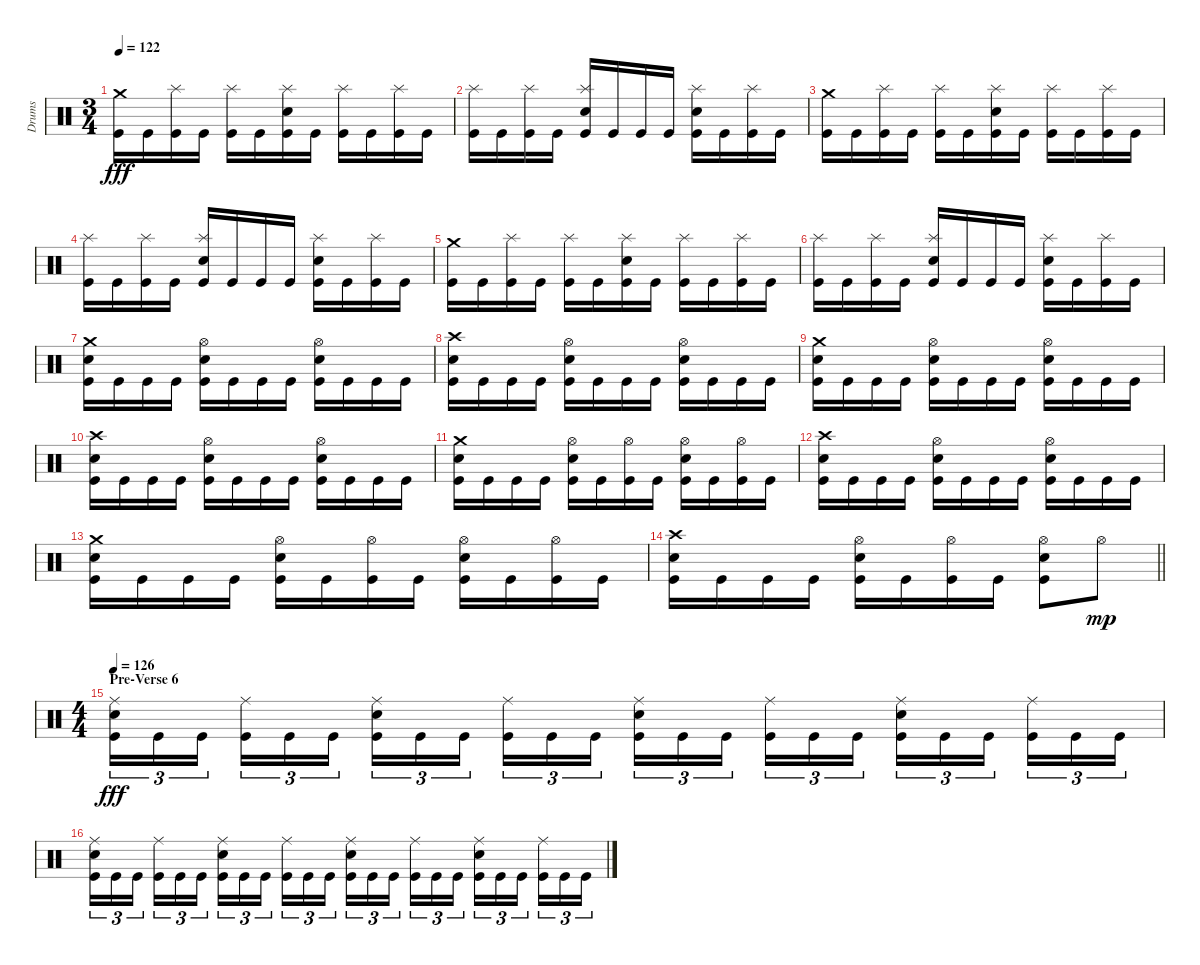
\track ("Drums" "Drums") {instrument percussion}
\staff {score}
\articulation defaults
\ts (3 4)
\tempo 122
\clef neutral
\ks c
("Crash medium (hit)" "Kick (hit)").16{dy fff} "Kick (hit)".16 ("Splash (hit)" "Kick (hit)").16 "Kick (hit)".16 ("Splash (hit)" "Kick (hit)").16 "Kick (hit)".16 ("Splash (hit)" "Electric Snare (hit)" "Kick (hit)").16 "Kick (hit)".16 ("Splash (hit)" "Kick (hit)").16 "Kick (hit)".16 ("Splash (hit)" "Kick (hit)").16 "Kick (hit)".16 |
("Splash (hit)" "Kick (hit)").16 "Kick (hit)".16 ("Splash (hit)" "Kick (hit)").16 "Kick (hit)".16 ("Splash (hit)" "Electric Snare (hit)" "Kick (hit)").16 "Kick (hit)".16 "Kick (hit)".16 "Kick (hit)".16 ("Splash (hit)" "Electric Snare (hit)" "Kick (hit)").16 "Kick (hit)".16 ("Splash (hit)" "Kick (hit)").16 "Kick (hit)".16 |
("Crash medium (hit)" "Kick (hit)").16 "Kick (hit)".16 ("Splash (hit)" "Kick (hit)").16 "Kick (hit)".16 ("Splash (hit)" "Kick (hit)").16 "Kick (hit)".16 ("Splash (hit)" "Electric Snare (hit)" "Kick (hit)").16 "Kick (hit)".16 ("Splash (hit)" "Kick (hit)").16 "Kick (hit)".16 ("Splash (hit)" "Kick (hit)").16 "Kick (hit)".16 |
("Splash (hit)" "Kick (hit)").16 "Kick (hit)".16 ("Splash (hit)" "Kick (hit)").16 "Kick (hit)".16 ("Splash (hit)" "Electric Snare (hit)" "Kick (hit)").16 "Kick (hit)".16 "Kick (hit)".16 "Kick (hit)".16 ("Splash (hit)" "Electric Snare (hit)" "Kick (hit)").16 "Kick (hit)".16 ("Splash (hit)" "Kick (hit)").16 "Kick (hit)".16 |
("Crash medium (hit)" "Kick (hit)").16 "Kick (hit)".16 ("Splash (hit)" "Kick (hit)").16 "Kick (hit)".16 ("Splash (hit)" "Kick (hit)").16 "Kick (hit)".16 ("Splash (hit)" "Electric Snare (hit)" "Kick (hit)").16 "Kick (hit)".16 ("Splash (hit)" "Kick (hit)").16 "Kick (hit)".16 ("Splash (hit)" "Kick (hit)").16 "Kick (hit)".16 |
("Splash (hit)" "Kick (hit)").16 "Kick (hit)".16 ("Splash (hit)" "Kick (hit)").16 "Kick (hit)".16 ("Splash (hit)" "Electric Snare (hit)" "Kick (hit)").16 "Kick (hit)".16 "Kick (hit)".16 "Kick (hit)".16 ("Splash (hit)" "Electric Snare (hit)" "Kick (hit)").16 "Kick (hit)".16 ("Splash (hit)" "Kick (hit)").16 "Kick (hit)".16 |
("Crash medium (hit)" "Electric Snare (hit)" "Kick (hit)").16 "Kick (hit)".16 "Kick (hit)".16 "Kick (hit)".16 ("Hi-Hat (open)" "Electric Snare (hit)" "Kick (hit)").16 "Kick (hit)".16 "Kick (hit)".16 "Kick (hit)".16 ("Hi-Hat (open)" "Electric Snare (hit)" "Kick (hit)").16 "Kick (hit)".16 "Kick (hit)".16 "Kick (hit)".16 |
("Crash high (hit)" "Electric Snare (hit)" "Kick (hit)").16 "Kick (hit)".16 "Kick (hit)".16 "Kick (hit)".16 ("Hi-Hat (open)" "Electric Snare (hit)" "Kick (hit)").16 "Kick (hit)".16 "Kick (hit)".16 "Kick (hit)".16 ("Hi-Hat (open)" "Electric Snare (hit)" "Kick (hit)").16 "Kick (hit)".16 "Kick (hit)".16 "Kick (hit)".16 |
("Crash medium (hit)" "Electric Snare (hit)" "Kick (hit)").16 "Kick (hit)".16 "Kick (hit)".16 "Kick (hit)".16 ("Hi-Hat (open)" "Electric Snare (hit)" "Kick (hit)").16 "Kick (hit)".16 "Kick (hit)".16 "Kick (hit)".16 ("Hi-Hat (open)" "Electric Snare (hit)" "Kick (hit)").16 "Kick (hit)".16 "Kick (hit)".16 "Kick (hit)".16 |
("Crash high (hit)" "Electric Snare (hit)" "Kick (hit)").16 "Kick (hit)".16 "Kick (hit)".16 "Kick (hit)".16 ("Hi-Hat (open)" "Electric Snare (hit)" "Kick (hit)").16 "Kick (hit)".16 "Kick (hit)".16 "Kick (hit)".16 ("Hi-Hat (open)" "Electric Snare (hit)" "Kick (hit)").16 "Kick (hit)".16 "Kick (hit)".16 "Kick (hit)".16 |
("Crash medium (hit)" "Electric Snare (hit)" "Kick (hit)").16 "Kick (hit)".16 "Kick (hit)".16 "Kick (hit)".16 ("Hi-Hat (open)" "Electric Snare (hit)" "Kick (hit)").16 "Kick (hit)".16 ("Hi-Hat (open)" "Kick (hit)").16 "Kick (hit)".16 ("Hi-Hat (open)" "Electric Snare (hit)" "Kick (hit)").16 "Kick (hit)".16 ("Hi-Hat (open)" "Kick (hit)").16 "Kick (hit)".16 |
("Crash high (hit)" "Electric Snare (hit)" "Kick (hit)").16 "Kick (hit)".16 "Kick (hit)".16 "Kick (hit)".16 ("Hi-Hat (open)" "Electric Snare (hit)" "Kick (hit)").16 "Kick (hit)".16 "Kick (hit)".16 "Kick (hit)".16 ("Hi-Hat (open)" "Electric Snare (hit)" "Kick (hit)").16 "Kick (hit)".16 "Kick (hit)".16 "Kick (hit)".16 |
("Crash medium (hit)" "Electric Snare (hit)" "Kick (hit)").16 "Kick (hit)".16 "Kick (hit)".16 "Kick (hit)".16 ("Hi-Hat (open)" "Electric Snare (hit)" "Kick (hit)").16 "Kick (hit)".16 ("Hi-Hat (open)" "Kick (hit)").16 "Kick (hit)".16 ("Hi-Hat (open)" "Electric Snare (hit)" "Kick (hit)").16 "Kick (hit)".16 ("Hi-Hat (open)" "Kick (hit)").16 "Kick (hit)".16 |
\barLineRight lightlight
("Crash high (hit)" "Electric Snare (hit)" "Kick (hit)").16 "Kick (hit)".16 "Kick (hit)".16 "Kick (hit)".16 ("Hi-Hat (open)" "Electric Snare (hit)" "Kick (hit)").16 "Kick (hit)".16 ("Hi-Hat (open)" "Kick (hit)").16 "Kick (hit)".16 ("Hi-Hat (open)" "Electric Snare (hit)" "Kick (hit)").8 "Hi-Hat (open)".8{dy mp} |
\ts (4 4)
\section ("" "Pre-Verse 6")
\tempo 126
("Ride (middle)" "Electric Snare (hit)" "Kick (hit)").16{tu (3 2) dy fff} "Kick (hit)".16{tu (3 2)} "Kick (hit)".16{tu (3 2) beam splitsecondary} ("Ride (middle)" "Kick (hit)").16{tu (3 2)} "Kick (hit)".16{tu (3 2)} "Kick (hit)".16{tu (3 2)} ("Ride (middle)" "Electric Snare (hit)" "Kick (hit)").16{tu (3 2)} "Kick (hit)".16{tu (3 2)} "Kick (hit)".16{tu (3 2) beam splitsecondary} ("Ride (middle)" "Kick (hit)").16{tu (3 2)} "Kick (hit)".16{tu (3 2)} "Kick (hit)".16{tu (3 2)} ("Ride (middle)" "Electric Snare (hit)" "Kick (hit)").16{tu (3 2)} "Kick (hit)".16{tu (3 2)} "Kick (hit)".16{tu (3 2) beam splitsecondary} ("Ride (middle)" "Kick (hit)").16{tu (3 2)} "Kick (hit)".16{tu (3 2)} "Kick (hit)".16{tu (3 2)} ("Ride (middle)" "Electric Snare (hit)" "Kick (hit)").16{tu (3 2)} "Kick (hit)".16{tu (3 2)} "Kick (hit)".16{tu (3 2) beam splitsecondary} ("Ride (middle)" "Kick (hit)").16{tu (3 2)} "Kick (hit)".16{tu (3 2)} "Kick (hit)".16{tu (3 2)} |
("Ride (middle)" "Electric Snare (hit)" "Kick (hit)").16{tu (3 2)} "Kick (hit)".16{tu (3 2)} "Kick (hit)".16{tu (3 2) beam splitsecondary} ("Ride (middle)" "Kick (hit)").16{tu (3 2)} "Kick (hit)".16{tu (3 2)} "Kick (hit)".16{tu (3 2)} ("Ride (middle)" "Electric Snare (hit)" "Kick (hit)").16{tu (3 2)} "Kick (hit)".16{tu (3 2)} "Kick (hit)".16{tu (3 2) beam splitsecondary} ("Ride (middle)" "Kick (hit)").16{tu (3 2)} "Kick (hit)".16{tu (3 2)} "Kick (hit)".16{tu (3 2)} ("Ride (middle)" "Electric Snare (hit)" "Kick (hit)").16{tu (3 2)} "Kick (hit)".16{tu (3 2)} "Kick (hit)".16{tu (3 2) beam splitsecondary} ("Ride (middle)" "Kick (hit)").16{tu (3 2)} "Kick (hit)".16{tu (3 2)} "Kick (hit)".16{tu (3 2)} ("Ride (middle)" "Electric Snare (hit)" "Kick (hit)").16{tu (3 2)} "Kick (hit)".16{tu (3 2)} "Kick (hit)".16{tu (3 2) beam splitsecondary} ("Ride (middle)" "Kick (hit)").16{tu (3 2)} "Kick (hit)".16{tu (3 2)} "Kick (hit)".16{tu (3 2)}
